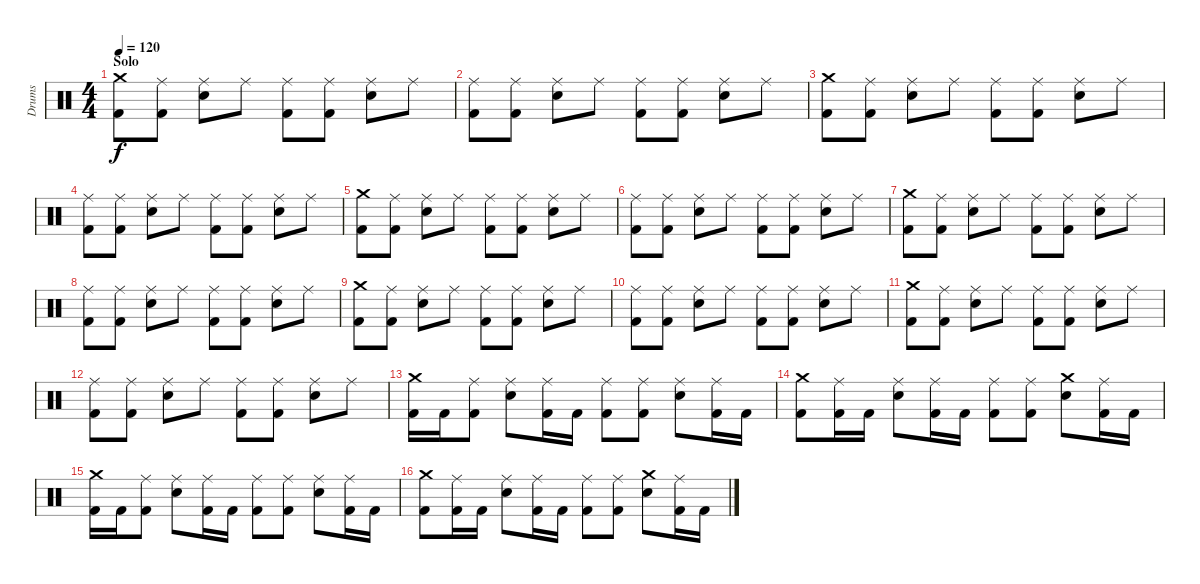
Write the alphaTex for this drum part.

\track ("Drums" "Drums") {instrument percussion}
\staff {score}
\articulation defaults
\ts (4 4)
\section ("" "Solo")
\tempo 120
\clef neutral
\ks c
("Crash medium (hit)" "Kick (hit) 2").8{dy f} ("Ride (middle)" "Kick (hit) 2").8 ("Ride (middle)" "Electric Snare (hit)").8 "Ride (middle)".8 ("Ride (middle)" "Kick (hit) 2").8 ("Ride (middle)" "Kick (hit) 2").8 ("Ride (middle)" "Electric Snare (hit)").8 "Ride (middle)".8 |
("Ride (middle)" "Kick (hit) 2").8 ("Ride (middle)" "Kick (hit) 2").8 ("Ride (middle)" "Electric Snare (hit)").8 "Ride (middle)".8 ("Ride (middle)" "Kick (hit) 2").8 ("Ride (middle)" "Kick (hit) 2").8 ("Ride (middle)" "Electric Snare (hit)").8 "Ride (middle)".8 |
("Crash medium (hit)" "Kick (hit) 2").8 ("Ride (middle)" "Kick (hit) 2").8 ("Ride (middle)" "Electric Snare (hit)").8 "Ride (middle)".8 ("Ride (middle)" "Kick (hit) 2").8 ("Ride (middle)" "Kick (hit) 2").8 ("Ride (middle)" "Electric Snare (hit)").8 "Ride (middle)".8 |
("Ride (middle)" "Kick (hit) 2").8 ("Ride (middle)" "Kick (hit) 2").8 ("Ride (middle)" "Electric Snare (hit)").8 "Ride (middle)".8 ("Ride (middle)" "Kick (hit) 2").8 ("Ride (middle)" "Kick (hit) 2").8 ("Ride (middle)" "Electric Snare (hit)").8 "Ride (middle)".8 |
("Crash medium (hit)" "Kick (hit) 2").8 ("Ride (middle)" "Kick (hit) 2").8 ("Ride (middle)" "Electric Snare (hit)").8 "Ride (middle)".8 ("Ride (middle)" "Kick (hit) 2").8 ("Ride (middle)" "Kick (hit) 2").8 ("Ride (middle)" "Electric Snare (hit)").8 "Ride (middle)".8 |
("Ride (middle)" "Kick (hit) 2").8 ("Ride (middle)" "Kick (hit) 2").8 ("Ride (middle)" "Electric Snare (hit)").8 "Ride (middle)".8 ("Ride (middle)" "Kick (hit) 2").8 ("Ride (middle)" "Kick (hit) 2").8 ("Ride (middle)" "Electric Snare (hit)").8 "Ride (middle)".8 |
("Crash medium (hit)" "Kick (hit) 2").8 ("Ride (middle)" "Kick (hit) 2").8 ("Ride (middle)" "Electric Snare (hit)").8 "Ride (middle)".8 ("Ride (middle)" "Kick (hit) 2").8 ("Ride (middle)" "Kick (hit) 2").8 ("Ride (middle)" "Electric Snare (hit)").8 "Ride (middle)".8 |
("Ride (middle)" "Kick (hit) 2").8 ("Ride (middle)" "Kick (hit) 2").8 ("Ride (middle)" "Electric Snare (hit)").8 "Ride (middle)".8 ("Ride (middle)" "Kick (hit) 2").8 ("Ride (middle)" "Kick (hit) 2").8 ("Ride (middle)" "Electric Snare (hit)").8 "Ride (middle)".8 |
("Crash medium (hit)" "Kick (hit) 2").8 ("Ride (middle)" "Kick (hit) 2").8 ("Ride (middle)" "Electric Snare (hit)").8 "Ride (middle)".8 ("Ride (middle)" "Kick (hit) 2").8 ("Ride (middle)" "Kick (hit) 2").8 ("Ride (middle)" "Electric Snare (hit)").8 "Ride (middle)".8 |
("Ride (middle)" "Kick (hit) 2").8 ("Ride (middle)" "Kick (hit) 2").8 ("Ride (middle)" "Electric Snare (hit)").8 "Ride (middle)".8 ("Ride (middle)" "Kick (hit) 2").8 ("Ride (middle)" "Kick (hit) 2").8 ("Ride (middle)" "Electric Snare (hit)").8 "Ride (middle)".8 |
("Crash medium (hit)" "Kick (hit) 2").8 ("Ride (middle)" "Kick (hit) 2").8 ("Ride (middle)" "Electric Snare (hit)").8 "Ride (middle)".8 ("Ride (middle)" "Kick (hit) 2").8 ("Ride (middle)" "Kick (hit) 2").8 ("Ride (middle)" "Electric Snare (hit)").8 "Ride (middle)".8 |
("Ride (middle)" "Kick (hit) 2").8 ("Ride (middle)" "Kick (hit) 2").8 ("Ride (middle)" "Electric Snare (hit)").8 "Ride (middle)".8 ("Ride (middle)" "Kick (hit) 2").8 ("Ride (middle)" "Kick (hit) 2").8 ("Ride (middle)" "Electric Snare (hit)").8 "Ride (middle)".8 |
("Crash medium (hit)" "Kick (hit) 2").16 "Kick (hit) 2".16 ("Ride (middle)" "Kick (hit) 2").8 ("Ride (middle)" "Electric Snare (hit)").8 ("Ride (middle)" "Kick (hit) 2").16 "Kick (hit) 2".16 ("Ride (middle)" "Kick (hit) 2").8 ("Ride (middle)" "Kick (hit) 2").8 ("Ride (middle)" "Electric Snare (hit)").8 ("Ride (middle)" "Kick (hit) 2").16 "Kick (hit) 2".16 |
("Crash medium (hit)" "Kick (hit) 2").8 ("Ride (middle)" "Kick (hit) 2").16 "Kick (hit) 2".16 ("Ride (middle)" "Electric Snare (hit)").8 ("Ride (middle)" "Kick (hit) 2").16 "Kick (hit) 2".16 ("Ride (middle)" "Kick (hit) 2").8 ("Ride (middle)" "Kick (hit) 2").8 ("Crash medium (hit)" "Electric Snare (hit)").8 ("Ride (middle)" "Kick (hit) 2").16 "Kick (hit) 2".16 |
("Crash medium (hit)" "Kick (hit) 2").16 "Kick (hit) 2".16 ("Ride (middle)" "Kick (hit) 2").8 ("Ride (middle)" "Electric Snare (hit)").8 ("Ride (middle)" "Kick (hit) 2").16 "Kick (hit) 2".16 ("Ride (middle)" "Kick (hit) 2").8 ("Ride (middle)" "Kick (hit) 2").8 ("Ride (middle)" "Electric Snare (hit)").8 ("Ride (middle)" "Kick (hit) 2").16 "Kick (hit) 2".16 |
("Crash medium (hit)" "Kick (hit) 2").8 ("Ride (middle)" "Kick (hit) 2").16 "Kick (hit) 2".16 ("Ride (middle)" "Electric Snare (hit)").8 ("Ride (middle)" "Kick (hit) 2").16 "Kick (hit) 2".16 ("Ride (middle)" "Kick (hit) 2").8 ("Ride (middle)" "Kick (hit) 2").8 ("Crash medium (hit)" "Electric Snare (hit)").8 ("Ride (middle)" "Kick (hit) 2").16 "Kick (hit) 2".16
